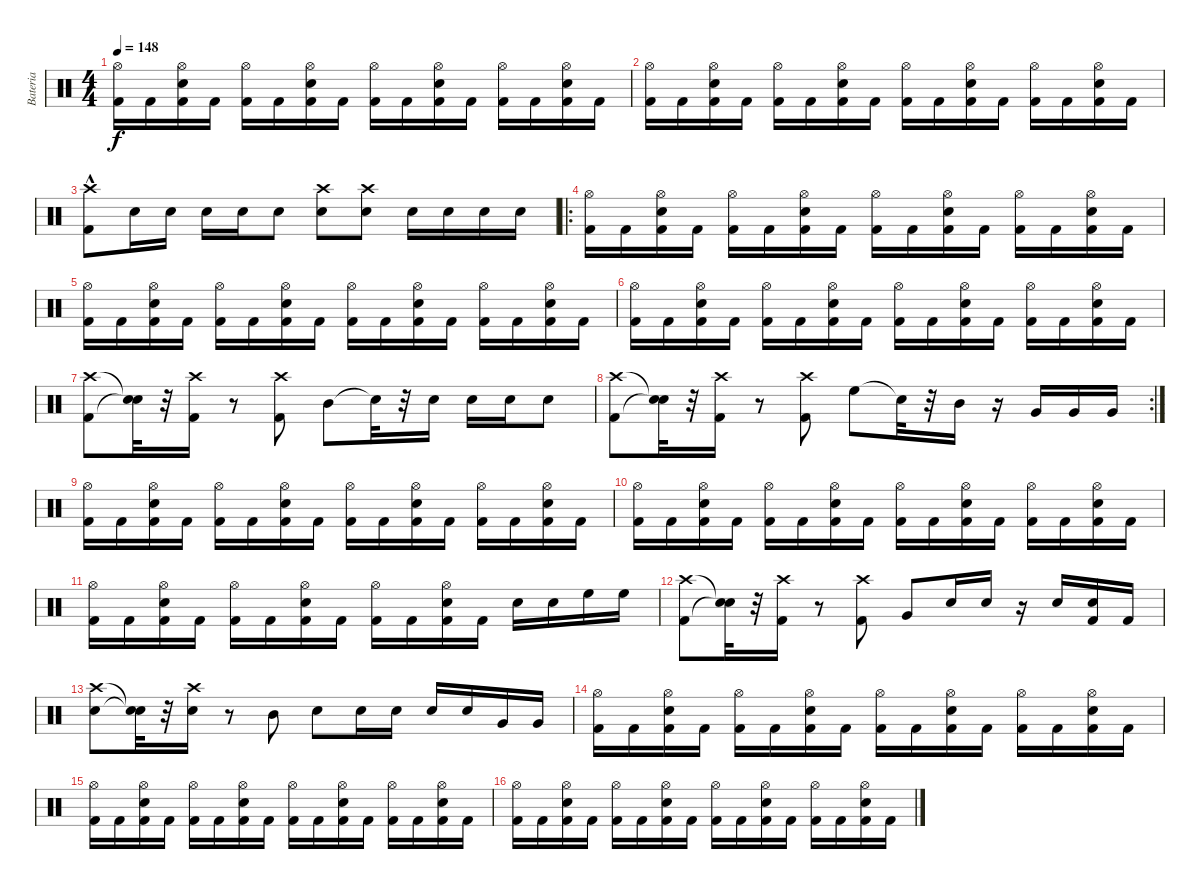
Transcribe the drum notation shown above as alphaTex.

\track ("Bateria" "Bateria") {instrument percussion}
\staff {score}
\articulation defaults
\ts (4 4)
\tempo 148
\clef neutral
\ks c
("Kick (hit) 2" "Hi-Hat (open)").16{dy f} "Kick (hit) 2".16 ("Kick (hit) 2" "Snare (hit) 2" "Hi-Hat (open)").16 "Kick (hit) 2".16 ("Kick (hit) 2" "Hi-Hat (open)").16 "Kick (hit) 2".16 ("Kick (hit) 2" "Snare (hit) 2" "Hi-Hat (open)").16 "Kick (hit) 2".16 ("Kick (hit) 2" "Hi-Hat (open)").16 "Kick (hit) 2".16 ("Kick (hit) 2" "Snare (hit) 2" "Hi-Hat (open)").16 "Kick (hit) 2".16 ("Kick (hit) 2" "Hi-Hat (open)").16 "Kick (hit) 2".16 ("Kick (hit) 2" "Snare (hit) 2" "Hi-Hat (open)").16 "Kick (hit) 2".16 |
("Kick (hit) 2" "Hi-Hat (open)").16 "Kick (hit) 2".16 ("Kick (hit) 2" "Snare (hit) 2" "Hi-Hat (open)").16 "Kick (hit) 2".16 ("Kick (hit) 2" "Hi-Hat (open)").16 "Kick (hit) 2".16 ("Kick (hit) 2" "Snare (hit) 2" "Hi-Hat (open)").16 "Kick (hit) 2".16 ("Kick (hit) 2" "Hi-Hat (open)").16 "Kick (hit) 2".16 ("Kick (hit) 2" "Snare (hit) 2" "Hi-Hat (open)").16 "Kick (hit) 2".16 ("Kick (hit) 2" "Hi-Hat (open)").16 "Kick (hit) 2".16 ("Kick (hit) 2" "Snare (hit) 2" "Hi-Hat (open)").16 "Kick (hit) 2".16 |
("Kick (hit) 2"{hac} "Crash high (hit)").8 "Snare (hit) 2".16 "Snare (hit) 2".16 "Snare (hit) 2".16 "Snare (hit) 2".16 "Snare (hit) 2".8 ("Snare (hit) 2" "Crash high (hit)").8 ("Snare (hit) 2" "Crash high (hit)").8 "Snare (hit) 2".16 "Snare (hit) 2".16 "Snare (hit) 2".16 "Snare (hit) 2".16 |
\ro
("Kick (hit) 2" "Hi-Hat (open)").16 "Kick (hit) 2".16 ("Kick (hit) 2" "Snare (hit) 2" "Hi-Hat (open)").16 "Kick (hit) 2".16 ("Kick (hit) 2" "Hi-Hat (open)").16 "Kick (hit) 2".16 ("Kick (hit) 2" "Snare (hit) 2" "Hi-Hat (open)").16 "Kick (hit) 2".16 ("Kick (hit) 2" "Hi-Hat (open)").16 "Kick (hit) 2".16 ("Kick (hit) 2" "Snare (hit) 2" "Hi-Hat (open)").16 "Kick (hit) 2".16 ("Kick (hit) 2" "Hi-Hat (open)").16 "Kick (hit) 2".16 ("Kick (hit) 2" "Snare (hit) 2" "Hi-Hat (open)").16 "Kick (hit) 2".16 |
("Kick (hit) 2" "Hi-Hat (open)").16 "Kick (hit) 2".16 ("Kick (hit) 2" "Snare (hit) 2" "Hi-Hat (open)").16 "Kick (hit) 2".16 ("Kick (hit) 2" "Hi-Hat (open)").16 "Kick (hit) 2".16 ("Kick (hit) 2" "Snare (hit) 2" "Hi-Hat (open)").16 "Kick (hit) 2".16 ("Kick (hit) 2" "Hi-Hat (open)").16 "Kick (hit) 2".16 ("Kick (hit) 2" "Snare (hit) 2" "Hi-Hat (open)").16 "Kick (hit) 2".16 ("Kick (hit) 2" "Hi-Hat (open)").16 "Kick (hit) 2".16 ("Kick (hit) 2" "Snare (hit) 2" "Hi-Hat (open)").16 "Kick (hit) 2".16 |
("Kick (hit) 2" "Hi-Hat (open)").16 "Kick (hit) 2".16 ("Kick (hit) 2" "Snare (hit) 2" "Hi-Hat (open)").16 "Kick (hit) 2".16 ("Kick (hit) 2" "Hi-Hat (open)").16 "Kick (hit) 2".16 ("Kick (hit) 2" "Snare (hit) 2" "Hi-Hat (open)").16 "Kick (hit) 2".16 ("Kick (hit) 2" "Hi-Hat (open)").16 "Kick (hit) 2".16 ("Kick (hit) 2" "Snare (hit) 2" "Hi-Hat (open)").16 "Kick (hit) 2".16 ("Kick (hit) 2" "Hi-Hat (open)").16 "Kick (hit) 2".16 ("Kick (hit) 2" "Snare (hit) 2" "Hi-Hat (open)").16 "Kick (hit) 2".16 |
("Kick (hit) 2" "Crash high (hit)").8 ("Snare (hit)"{t} "Snare (hit)"{t}).32 r.32 ("Kick (hit) 2" "Crash high (hit)").16 r.8 ("Kick (hit) 2" "Crash high (hit)").8 "Mid Tom (hit)".8 "Snare (hit)"{t}.32 r.32 "Snare (hit) 2".16 "Snare (hit) 2".16 "Snare (hit) 2".16 "Snare (hit) 2".8 |
\rc 2
("Kick (hit) 2" "Crash high (hit)").8 ("Snare (hit)"{t} "Snare (hit)"{t}).32 r.32 ("Kick (hit) 2" "Crash high (hit)").16 r.8 ("Kick (hit) 2" "Crash high (hit)").8 "High Floor Tom (hit)".8 "Snare (hit)"{t}.32 r.32 "Mid Tom (hit)".16 r.16 "Very Low Tom (hit)".16 "Very Low Tom (hit)".16 "Very Low Tom (hit)".16 |
("Kick (hit) 2" "Hi-Hat (open)").16 "Kick (hit) 2".16 ("Kick (hit) 2" "Snare (hit) 2" "Hi-Hat (open)").16 "Kick (hit) 2".16 ("Kick (hit) 2" "Hi-Hat (open)").16 "Kick (hit) 2".16 ("Kick (hit) 2" "Snare (hit) 2" "Hi-Hat (open)").16 "Kick (hit) 2".16 ("Kick (hit) 2" "Hi-Hat (open)").16 "Kick (hit) 2".16 ("Kick (hit) 2" "Snare (hit) 2" "Hi-Hat (open)").16 "Kick (hit) 2".16 ("Kick (hit) 2" "Hi-Hat (open)").16 "Kick (hit) 2".16 ("Kick (hit) 2" "Snare (hit) 2" "Hi-Hat (open)").16 "Kick (hit) 2".16 |
("Kick (hit) 2" "Hi-Hat (open)").16 "Kick (hit) 2".16 ("Kick (hit) 2" "Snare (hit) 2" "Hi-Hat (open)").16 "Kick (hit) 2".16 ("Kick (hit) 2" "Hi-Hat (open)").16 "Kick (hit) 2".16 ("Kick (hit) 2" "Snare (hit) 2" "Hi-Hat (open)").16 "Kick (hit) 2".16 ("Kick (hit) 2" "Hi-Hat (open)").16 "Kick (hit) 2".16 ("Kick (hit) 2" "Snare (hit) 2" "Hi-Hat (open)").16 "Kick (hit) 2".16 ("Kick (hit) 2" "Hi-Hat (open)").16 "Kick (hit) 2".16 ("Kick (hit) 2" "Snare (hit) 2" "Hi-Hat (open)").16 "Kick (hit) 2".16 |
("Kick (hit) 2" "Hi-Hat (open)").16 "Kick (hit) 2".16 ("Kick (hit) 2" "Snare (hit) 2" "Hi-Hat (open)").16 "Kick (hit) 2".16 ("Kick (hit) 2" "Hi-Hat (open)").16 "Kick (hit) 2".16 ("Kick (hit) 2" "Snare (hit) 2" "Hi-Hat (open)").16 "Kick (hit) 2".16 ("Kick (hit) 2" "Hi-Hat (open)").16 "Kick (hit) 2".16 ("Kick (hit) 2" "Snare (hit) 2" "Hi-Hat (open)").16 "Kick (hit) 2".16 "Snare (hit) 2".16 "Snare (hit) 2".16 "High Floor Tom (hit)".16 "High Floor Tom (hit)".16 |
("Kick (hit) 2" "Crash high (hit)").8 ("Snare (hit)"{t} "Snare (hit)"{t}).32 r.32 ("Kick (hit) 2" "Crash high (hit)").16 r.8 ("Kick (hit) 2" "Crash high (hit)").8 "Very Low Tom (hit)".8 "Snare (hit) 2".16 "Snare (hit) 2".16 r.16 "Snare (hit) 2".16 ("Kick (hit) 2" "Snare (hit) 2").16 "Kick (hit) 2".16 |
("Snare (hit) 2" "Crash high (hit)").8 ("Snare (hit)"{t} "Snare (hit)"{t}).32 r.32 ("Snare (hit) 2" "Crash high (hit)").16 r.8 "Mid Tom (hit)".8 "Snare (hit) 2".8 "Snare (hit) 2".16 "Snare (hit) 2".16 "Snare (hit) 2".16 "Snare (hit) 2".16 "Very Low Tom (hit)".16 "Very Low Tom (hit)".16 |
("Kick (hit) 2" "Hi-Hat (open)").16 "Kick (hit) 2".16 ("Kick (hit) 2" "Snare (hit) 2" "Hi-Hat (open)").16 "Kick (hit) 2".16 ("Kick (hit) 2" "Hi-Hat (open)").16 "Kick (hit) 2".16 ("Kick (hit) 2" "Snare (hit) 2" "Hi-Hat (open)").16 "Kick (hit) 2".16 ("Kick (hit) 2" "Hi-Hat (open)").16 "Kick (hit) 2".16 ("Kick (hit) 2" "Snare (hit) 2" "Hi-Hat (open)").16 "Kick (hit) 2".16 ("Kick (hit) 2" "Hi-Hat (open)").16 "Kick (hit) 2".16 ("Kick (hit) 2" "Snare (hit) 2" "Hi-Hat (open)").16 "Kick (hit) 2".16 |
("Kick (hit) 2" "Hi-Hat (open)").16 "Kick (hit) 2".16 ("Kick (hit) 2" "Snare (hit) 2" "Hi-Hat (open)").16 "Kick (hit) 2".16 ("Kick (hit) 2" "Hi-Hat (open)").16 "Kick (hit) 2".16 ("Kick (hit) 2" "Snare (hit) 2" "Hi-Hat (open)").16 "Kick (hit) 2".16 ("Kick (hit) 2" "Hi-Hat (open)").16 "Kick (hit) 2".16 ("Kick (hit) 2" "Snare (hit) 2" "Hi-Hat (open)").16 "Kick (hit) 2".16 ("Kick (hit) 2" "Hi-Hat (open)").16 "Kick (hit) 2".16 ("Kick (hit) 2" "Snare (hit) 2" "Hi-Hat (open)").16 "Kick (hit) 2".16 |
("Kick (hit) 2" "Hi-Hat (open)").16 "Kick (hit) 2".16 ("Kick (hit) 2" "Snare (hit) 2" "Hi-Hat (open)").16 "Kick (hit) 2".16 ("Kick (hit) 2" "Hi-Hat (open)").16 "Kick (hit) 2".16 ("Kick (hit) 2" "Snare (hit) 2" "Hi-Hat (open)").16 "Kick (hit) 2".16 ("Kick (hit) 2" "Hi-Hat (open)").16 "Kick (hit) 2".16 ("Kick (hit) 2" "Snare (hit) 2" "Hi-Hat (open)").16 "Kick (hit) 2".16 ("Kick (hit) 2" "Hi-Hat (open)").16 "Kick (hit) 2".16 ("Kick (hit) 2" "Snare (hit) 2" "Hi-Hat (open)").16 "Kick (hit) 2".16
